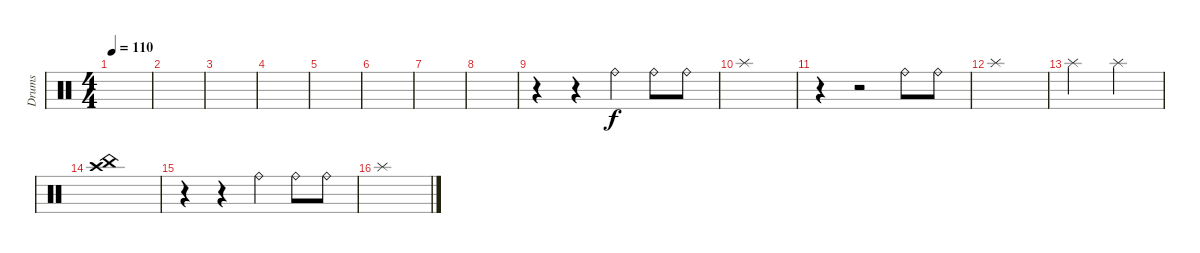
\track ("Drums" "Drums") {instrument percussion}
\staff {score}
\articulation defaults
\ts (4 4)
\tempo 110
\clef neutral
\ks c
|
|
|
|
|
|
|
|
r.4 r.4 "Ride (bell)".4 "Ride (bell)".8 "Ride (bell)".8 |
"Splash (hit)".1 |
r.4 r.2 "Ride (bell)".8 "Ride (bell)".8 |
"Splash (hit)".1 |
"Splash (hit)".2 "Splash (hit)".2 |
("China (hit)" "Crash high (hit)").1 |
r.4 r.4 "Ride (bell)".4 "Ride (bell)".8 "Ride (bell)".8 |
"Splash (hit)".1
